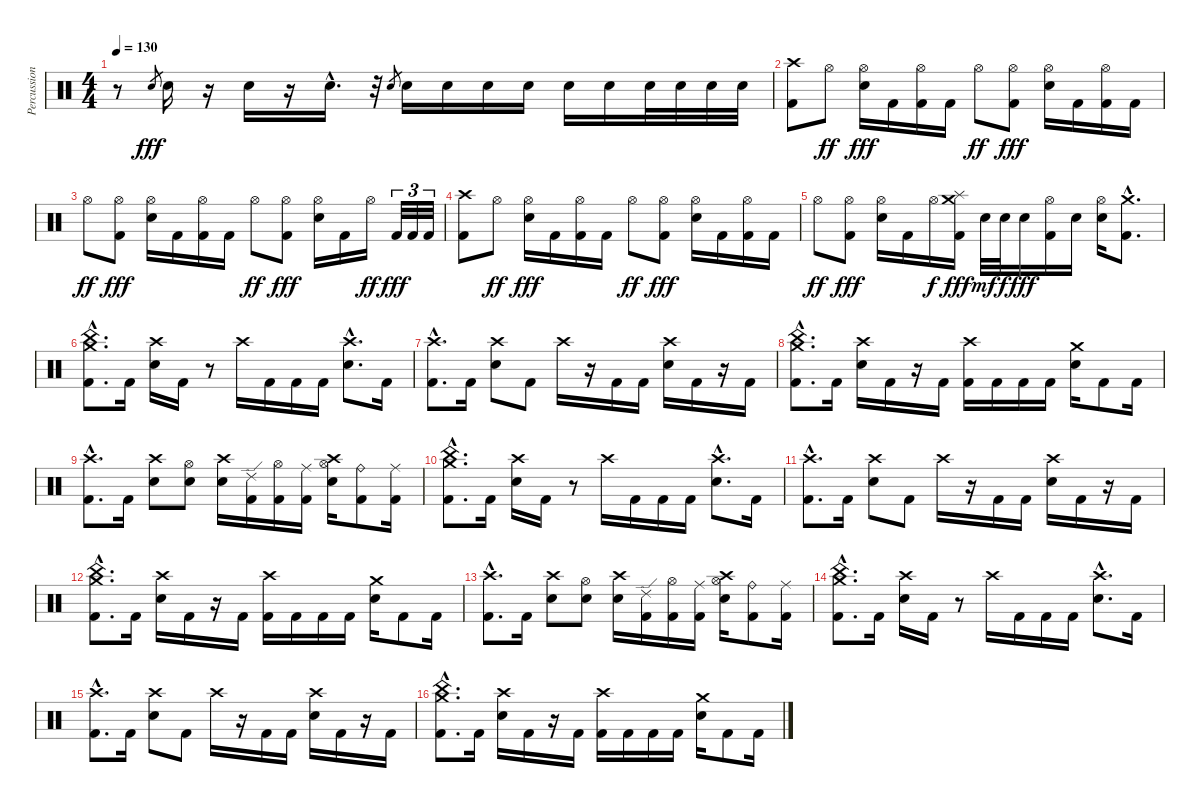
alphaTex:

\track ("Percussion" "Percussion") {instrument percussion}
\staff {score}
\articulation defaults
\ts (4 4)
\tempo 130
\clef neutral
\ks c
r.8{dy fff} "Electric Snare (hit)".8{gr} "Electric Snare (hit)".16 r.16 "Electric Snare (hit)".16 r.16 "Electric Snare (hit)"{hac}.16{d} r.32 "Electric Snare (hit)".8{gr} "Electric Snare (hit)".16 "Electric Snare (hit)".16 "Electric Snare (hit)".16 "Electric Snare (hit)".16 "Electric Snare (hit)".16 "Electric Snare (hit)".16 "Electric Snare (hit)".32 "Electric Snare (hit)".32 "Electric Snare (hit)".32 "Electric Snare (hit)".32 |
("Crash high (hit)" "Kick (hit) 2").8 "Hi-Hat (open)".8{dy ff} ("Hi-Hat (open)" "Electric Snare (hit)").16{dy fff} "Kick (hit) 2".16 ("Hi-Hat (open)" "Kick (hit) 2").16 "Kick (hit) 2".16 "Hi-Hat (open)".8{dy ff} ("Hi-Hat (open)" "Kick (hit) 2").8{dy fff} ("Hi-Hat (open)" "Electric Snare (hit)").16 "Kick (hit) 2".16 ("Hi-Hat (open)" "Kick (hit) 2").16 "Kick (hit) 2".16 |
"Hi-Hat (open)".8{dy ff} ("Hi-Hat (open)" "Kick (hit) 2").8{dy fff} ("Hi-Hat (open)" "Electric Snare (hit)").16 "Kick (hit) 2".16 ("Hi-Hat (open)" "Kick (hit) 2").16 "Kick (hit) 2".16 "Hi-Hat (open)".8{dy ff} ("Hi-Hat (open)" "Kick (hit) 2").8{dy fff} ("Hi-Hat (open)" "Electric Snare (hit)").16 "Kick (hit) 2".16 "Hi-Hat (open)".16{dy ff} "Kick (hit) 2".32{tu (3 2) dy fff} "Kick (hit) 2".32{tu (3 2)} "Kick (hit) 2".32{tu (3 2)} |
("Crash high (hit)" "Kick (hit) 2").8 "Hi-Hat (open)".8{dy ff} ("Hi-Hat (open)" "Electric Snare (hit)").16{dy fff} "Kick (hit) 2".16 ("Hi-Hat (open)" "Kick (hit) 2").16 "Kick (hit) 2".16 "Hi-Hat (open)".8{dy ff} ("Hi-Hat (open)" "Kick (hit) 2").8{dy fff} ("Hi-Hat (open)" "Electric Snare (hit)").16 "Kick (hit) 2".16 ("Hi-Hat (open)" "Kick (hit) 2").16 "Kick (hit) 2".16 |
"Hi-Hat (open)".8{dy ff} ("Hi-Hat (open)" "Kick (hit) 2").8{dy fff} ("Hi-Hat (open)" "Electric Snare (hit)").16 "Kick (hit) 2".16 "Hi-Hat (open)".16{dy f} ("Splash (hit)" "Crash medium (hit)" "Kick (hit) 2").16{dy fff} "Electric Snare (hit)".32{dy mf} "Electric Snare (hit)".32{dy f} "Electric Snare (hit)".16{dy fff} ("Hi-Hat (open)" "Kick (hit) 2").16 "Electric Snare (hit)".16 ("Hi-Hat (open)" "Electric Snare (hit)").16 ("Crash medium (hit)"{hac} "Kick (hit) 2"{hac}).8{d} |
("Crash medium (hit)"{hac} "China (hit)"{hac} "Kick (hit) 2"{hac}).8{d} "Kick (hit) 2".16 ("Crash high (hit)" "Electric Snare (hit)").16 "Kick (hit) 2".16 r.8 "Crash high (hit)".16 "Kick (hit) 2".16 "Kick (hit) 2".16 "Kick (hit) 2".16 ("Crash high (hit)"{hac} "Electric Snare (hit)"{hac}).8{d} "Kick (hit) 2".16 |
("Crash high (hit)"{hac} "Kick (hit) 2"{hac}).8{d} "Kick (hit) 2".16 ("Crash high (hit)" "Electric Snare (hit)").8 "Kick (hit) 2".8 "Crash high (hit)".16 r.16 "Kick (hit) 2".16 "Kick (hit) 2".16 ("Crash high (hit)" "Electric Snare (hit)").16 "Kick (hit) 2".16 r.16 "Kick (hit) 2".16 |
("Crash medium (hit)"{hac} "China (hit)"{hac} "Kick (hit) 2"{hac}).8{d} "Kick (hit) 2".16 ("Crash high (hit)" "Electric Snare (hit)").16 "Kick (hit) 2".16 r.16 "Kick (hit) 2".16 ("Crash high (hit)" "Kick (hit) 2").16 "Kick (hit) 2".16 "Kick (hit) 2".16 "Kick (hit) 2".16 ("Crash medium (hit)" "Electric Snare (hit)").16 "Kick (hit) 2".8 "Kick (hit) 2".16 |
("Crash high (hit)"{hac} "Kick (hit) 2"{hac}).8{d} "Kick (hit) 2".16 ("Crash high (hit)" "Electric Snare (hit)").8 ("Hi-Hat (open)" "Electric Snare (hit)").8 ("Crash high (hit)" "Electric Snare (hit)").16 ("Ride (edge) 2" "Kick (hit) 2").16 ("Hi-Hat (open)" "Kick (hit) 2").16 ("Ride (middle)" "Kick (hit) 2").16 ("Crash high (hit)" "Hi-Hat (open)" "Electric Snare (hit)").16 ("Ride (bell)" "Kick (hit) 2").8 ("Ride (middle)" "Kick (hit) 2").16 |
("Crash medium (hit)"{hac} "China (hit)"{hac} "Kick (hit) 2"{hac}).8{d} "Kick (hit) 2".16 ("Crash high (hit)" "Electric Snare (hit)").16 "Kick (hit) 2".16 r.8 "Crash high (hit)".16 "Kick (hit) 2".16 "Kick (hit) 2".16 "Kick (hit) 2".16 ("Crash high (hit)"{hac} "Electric Snare (hit)"{hac}).8{d} "Kick (hit) 2".16 |
("Crash high (hit)"{hac} "Kick (hit) 2"{hac}).8{d} "Kick (hit) 2".16 ("Crash high (hit)" "Electric Snare (hit)").8 "Kick (hit) 2".8 "Crash high (hit)".16 r.16 "Kick (hit) 2".16 "Kick (hit) 2".16 ("Crash high (hit)" "Electric Snare (hit)").16 "Kick (hit) 2".16 r.16 "Kick (hit) 2".16 |
("Crash medium (hit)"{hac} "China (hit)"{hac} "Kick (hit) 2"{hac}).8{d} "Kick (hit) 2".16 ("Crash high (hit)" "Electric Snare (hit)").16 "Kick (hit) 2".16 r.16 "Kick (hit) 2".16 ("Crash high (hit)" "Kick (hit) 2").16 "Kick (hit) 2".16 "Kick (hit) 2".16 "Kick (hit) 2".16 ("Crash medium (hit)" "Electric Snare (hit)").16 "Kick (hit) 2".8 "Kick (hit) 2".16 |
("Crash high (hit)"{hac} "Kick (hit) 2"{hac}).8{d} "Kick (hit) 2".16 ("Crash high (hit)" "Electric Snare (hit)").8 ("Hi-Hat (open)" "Electric Snare (hit)").8 ("Crash high (hit)" "Electric Snare (hit)").16 ("Ride (edge) 2" "Kick (hit) 2").16 ("Hi-Hat (open)" "Kick (hit) 2").16 ("Ride (middle)" "Kick (hit) 2").16 ("Crash high (hit)" "Hi-Hat (open)" "Electric Snare (hit)").16 ("Ride (bell)" "Kick (hit) 2").8 ("Ride (middle)" "Kick (hit) 2").16 |
("Crash medium (hit)"{hac} "China (hit)"{hac} "Kick (hit) 2"{hac}).8{d} "Kick (hit) 2".16 ("Crash high (hit)" "Electric Snare (hit)").16 "Kick (hit) 2".16 r.8 "Crash high (hit)".16 "Kick (hit) 2".16 "Kick (hit) 2".16 "Kick (hit) 2".16 ("Crash high (hit)"{hac} "Electric Snare (hit)"{hac}).8{d} "Kick (hit) 2".16 |
("Crash high (hit)"{hac} "Kick (hit) 2"{hac}).8{d} "Kick (hit) 2".16 ("Crash high (hit)" "Electric Snare (hit)").8 "Kick (hit) 2".8 "Crash high (hit)".16 r.16 "Kick (hit) 2".16 "Kick (hit) 2".16 ("Crash high (hit)" "Electric Snare (hit)").16 "Kick (hit) 2".16 r.16 "Kick (hit) 2".16 |
("Crash medium (hit)"{hac} "China (hit)"{hac} "Kick (hit) 2"{hac}).8{d} "Kick (hit) 2".16 ("Crash high (hit)" "Electric Snare (hit)").16 "Kick (hit) 2".16 r.16 "Kick (hit) 2".16 ("Crash high (hit)" "Kick (hit) 2").16 "Kick (hit) 2".16 "Kick (hit) 2".16 "Kick (hit) 2".16 ("Crash medium (hit)" "Electric Snare (hit)").16 "Kick (hit) 2".8 "Kick (hit) 2".16
